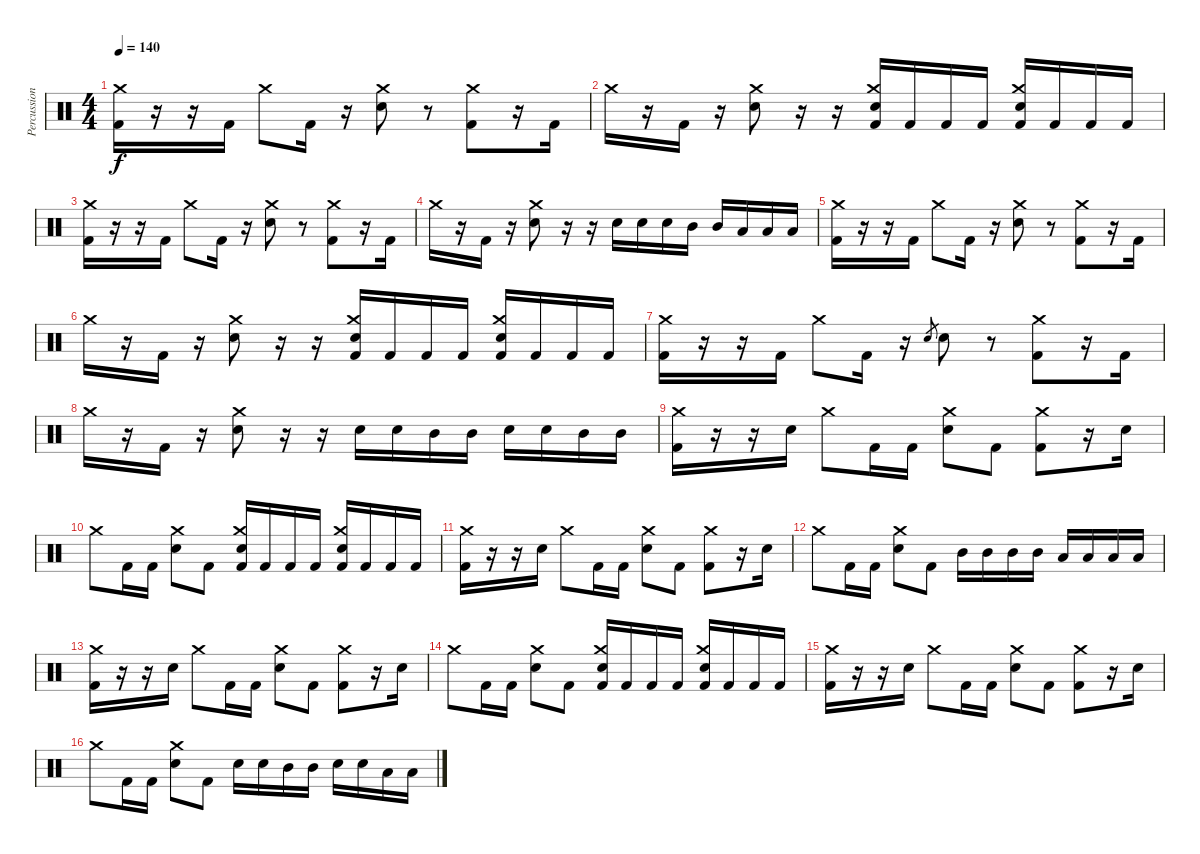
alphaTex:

\track ("Percussions" "Percussion") {instrument percussion}
\staff {score}
\articulation defaults
\ts (4 4)
\tempo 140
\clef neutral
\ks c
("Kick (hit) 2" "Crash medium (hit)").16{dy f} r.16 r.16 "Kick (hit) 2".16 "Crash medium (hit)".8 "Kick (hit) 2".16 r.16 ("Electric Snare (hit)" "Crash medium (hit)").8 r.8 ("Kick (hit) 2" "Crash medium (hit)").8 r.16 "Kick (hit) 2".16 |
"Crash medium (hit)".16 r.16 "Kick (hit) 2".16 r.16 ("Electric Snare (hit)" "Crash medium (hit)").8 r.16 r.16 ("Kick (hit) 2" "Electric Snare (hit)" "Crash medium (hit)").16 "Kick (hit) 2".16 "Kick (hit) 2".16 "Kick (hit) 2".16 ("Kick (hit) 2" "Electric Snare (hit)" "Crash medium (hit)").16 "Kick (hit) 2".16 "Kick (hit) 2".16 "Kick (hit) 2".16 |
("Kick (hit) 2" "Crash medium (hit)").16 r.16 r.16 "Kick (hit) 2".16 "Crash medium (hit)".8 "Kick (hit) 2".16 r.16 ("Electric Snare (hit)" "Crash medium (hit)").8 r.8 ("Kick (hit) 2" "Crash medium (hit)").8 r.16 "Kick (hit) 2".16 |
"Crash medium (hit)".16 r.16 "Kick (hit) 2".16 r.16 ("Electric Snare (hit)" "Crash medium (hit)").8 r.16 r.16 "Electric Snare (hit)".16 "Electric Snare (hit)".16 "Electric Snare (hit)".16 "Mid Tom (hit)".16 "Mid Tom (hit)".16 "Low Tom (hit)".16 "Low Tom (hit)".16 "Low Tom (hit)".16 |
("Kick (hit) 2" "Crash medium (hit)").16 r.16 r.16 "Kick (hit) 2".16 "Crash medium (hit)".8 "Kick (hit) 2".16 r.16 ("Electric Snare (hit)" "Crash medium (hit)").8 r.8 ("Kick (hit) 2" "Crash medium (hit)").8 r.16 "Kick (hit) 2".16 |
"Crash medium (hit)".16 r.16 "Kick (hit) 2".16 r.16 ("Electric Snare (hit)" "Crash medium (hit)").8 r.16 r.16 ("Kick (hit) 2" "Electric Snare (hit)" "Crash medium (hit)").16 "Kick (hit) 2".16 "Kick (hit) 2".16 "Kick (hit) 2".16 ("Kick (hit) 2" "Electric Snare (hit)" "Crash medium (hit)").16 "Kick (hit) 2".16 "Kick (hit) 2".16 "Kick (hit) 2".16 |
("Kick (hit) 2" "Crash medium (hit)").16 r.16 r.16 "Kick (hit) 2".16 "Crash medium (hit)".8 "Kick (hit) 2".16 r.16 "Electric Snare (hit)".8{gr} "Electric Snare (hit)".8 r.8 ("Kick (hit) 2" "Crash medium (hit)").8 r.16 "Kick (hit) 2".16 |
"Crash medium (hit)".16 r.16 "Kick (hit) 2".16 r.16 ("Electric Snare (hit)" "Crash medium (hit)").8 r.16 r.16 "Electric Snare (hit)".16 "Electric Snare (hit)".16 "Mid Tom (hit)".16 "Mid Tom (hit)".16 "Electric Snare (hit)".16 "Electric Snare (hit)".16 "Mid Tom (hit)".16 "Mid Tom (hit)".16 |
("Kick (hit) 2" "Crash medium (hit)").16 r.16 r.16 "Electric Snare (hit)".16 "Crash medium (hit)".8 "Kick (hit) 2".16 "Kick (hit) 2".16 ("Electric Snare (hit)" "Crash medium (hit)").8 "Kick (hit) 2".8 ("Kick (hit) 2" "Crash medium (hit)").8 r.16 "Electric Snare (hit)".16 |
"Crash medium (hit)".8 "Kick (hit) 2".16 "Kick (hit) 2".16 ("Electric Snare (hit)" "Crash medium (hit)").8 "Kick (hit) 2".8 ("Kick (hit) 2" "Electric Snare (hit)" "Crash medium (hit)").16 "Kick (hit) 2".16 "Kick (hit) 2".16 "Kick (hit) 2".16 ("Kick (hit) 2" "Electric Snare (hit)" "Crash medium (hit)").16 "Kick (hit) 2".16 "Kick (hit) 2".16 "Kick (hit) 2".16 |
("Kick (hit) 2" "Crash medium (hit)").16 r.16 r.16 "Electric Snare (hit)".16 "Crash medium (hit)".8 "Kick (hit) 2".16 "Kick (hit) 2".16 ("Electric Snare (hit)" "Crash medium (hit)").8 "Kick (hit) 2".8 ("Kick (hit) 2" "Crash medium (hit)").8 r.16 "Electric Snare (hit)".16 |
"Crash medium (hit)".8 "Kick (hit) 2".16 "Kick (hit) 2".16 ("Electric Snare (hit)" "Crash medium (hit)").8 "Kick (hit) 2".8 "Mid Tom (hit)".16 "Mid Tom (hit)".16 "Mid Tom (hit)".16 "Mid Tom (hit)".16 "Low Tom (hit)".16 "Low Tom (hit)".16 "Low Tom (hit)".16 "Low Tom (hit)".16 |
("Kick (hit) 2" "Crash medium (hit)").16 r.16 r.16 "Electric Snare (hit)".16 "Crash medium (hit)".8 "Kick (hit) 2".16 "Kick (hit) 2".16 ("Electric Snare (hit)" "Crash medium (hit)").8 "Kick (hit) 2".8 ("Kick (hit) 2" "Crash medium (hit)").8 r.16 "Electric Snare (hit)".16 |
"Crash medium (hit)".8 "Kick (hit) 2".16 "Kick (hit) 2".16 ("Electric Snare (hit)" "Crash medium (hit)").8 "Kick (hit) 2".8 ("Kick (hit) 2" "Electric Snare (hit)" "Crash medium (hit)").16 "Kick (hit) 2".16 "Kick (hit) 2".16 "Kick (hit) 2".16 ("Kick (hit) 2" "Electric Snare (hit)" "Crash medium (hit)").16 "Kick (hit) 2".16 "Kick (hit) 2".16 "Kick (hit) 2".16 |
("Kick (hit) 2" "Crash medium (hit)").16 r.16 r.16 "Electric Snare (hit)".16 "Crash medium (hit)".8 "Kick (hit) 2".16 "Kick (hit) 2".16 ("Electric Snare (hit)" "Crash medium (hit)").8 "Kick (hit) 2".8 ("Kick (hit) 2" "Crash medium (hit)").8 r.16 "Electric Snare (hit)".16 |
"Crash medium (hit)".8 "Kick (hit) 2".16 "Kick (hit) 2".16 ("Electric Snare (hit)" "Crash medium (hit)").8 "Kick (hit) 2".8 "Electric Snare (hit)".16 "Electric Snare (hit)".16 "Mid Tom (hit)".16 "Mid Tom (hit)".16 "Electric Snare (hit)".16 "Electric Snare (hit)".16 "Low Tom (hit)".16 "Low Tom (hit)".16
